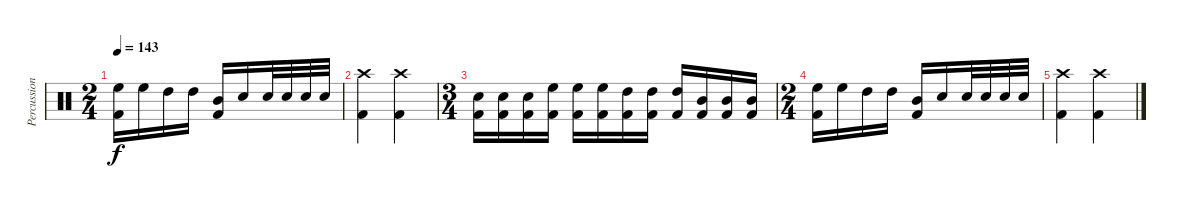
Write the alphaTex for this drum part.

\track ("Percussions" "Percussion") {instrument percussion}
\staff {score}
\articulation defaults
\ts (2 4)
\tempo 143
\clef neutral
\ks c
("High Floor Tom (hit)" "Kick (hit) 2").16{dy f} "High Floor Tom (hit)".16 "High Tom (hit)".16 "High Tom (hit)".16 ("Mid Tom (hit)" "Kick (hit) 2").16 "Snare (hit) 2".16 "Snare (hit) 2".32 "Snare (hit) 2".32 "Snare (hit) 2".32 "Snare (hit) 2".32 |
("Crash high (hit)" "Kick (hit) 2").4 ("Crash high (hit)" "Kick (hit) 2").4 |
\ts (3 4)
("Snare (hit) 2" "Kick (hit) 2").16 ("Snare (hit) 2" "Kick (hit) 2").16 ("Snare (hit) 2" "Kick (hit) 2").16 ("High Floor Tom (hit)" "Kick (hit) 2").16 ("High Floor Tom (hit)" "Kick (hit) 2").16 ("High Floor Tom (hit)" "Kick (hit) 2").16 ("High Tom (hit)" "Kick (hit) 2").16 ("High Tom (hit)" "Kick (hit) 2").16 ("High Tom (hit)" "Kick (hit) 2").16 ("Mid Tom (hit)" "Kick (hit) 2").16 ("Mid Tom (hit)" "Kick (hit) 2").16 ("Mid Tom (hit)" "Kick (hit) 2").16 |
\ts (2 4)
("High Floor Tom (hit)" "Kick (hit) 2").16 "High Floor Tom (hit)".16 "High Tom (hit)".16 "High Tom (hit)".16 ("Mid Tom (hit)" "Kick (hit) 2").16 "Snare (hit) 2".16 "Snare (hit) 2".32 "Snare (hit) 2".32 "Snare (hit) 2".32 "Snare (hit) 2".32 |
("Crash high (hit)" "Kick (hit) 2").4 ("Crash high (hit)" "Kick (hit) 2").4
